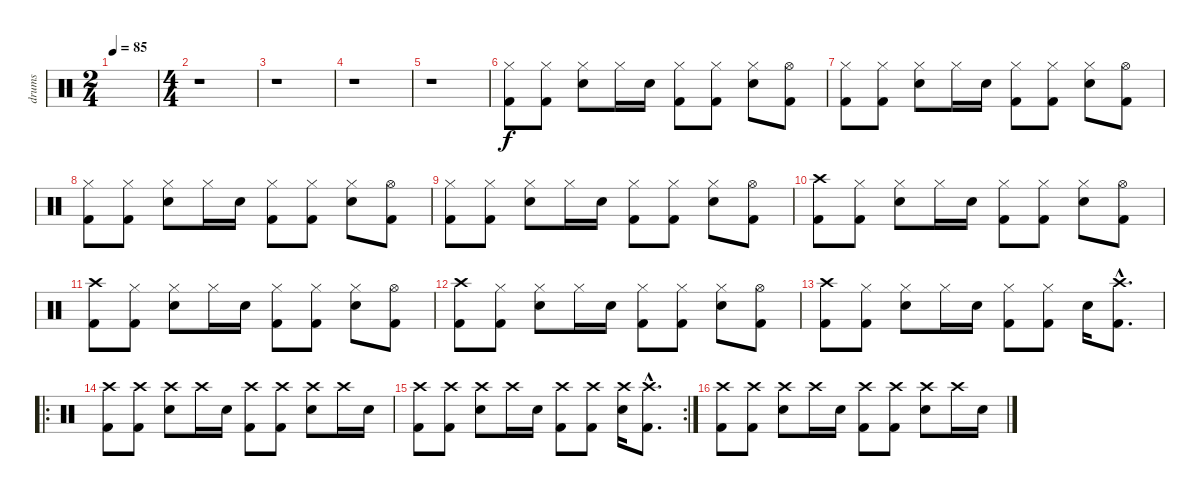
\track ("drums" "drums") {instrument percussion}
\staff {score}
\articulation defaults
\ts (2 4)
\tempo 85
\clef neutral
\ks c
|
\ts (4 4)
r.1 |
r.1 |
r.1 |
r.1 |
("Hi-Hat (closed)" "Kick (hit) 2").8 ("Hi-Hat (closed)" "Kick (hit) 2").8 ("Hi-Hat (closed)" "Snare (hit) 2").8 "Hi-Hat (closed)".16 "Snare (hit) 2".16 ("Hi-Hat (closed)" "Kick (hit) 2").8 ("Hi-Hat (closed)" "Kick (hit) 2").8 ("Hi-Hat (closed)" "Snare (hit) 2").8 ("Hi-Hat (open)" "Kick (hit) 2").8 |
("Hi-Hat (closed)" "Kick (hit) 2").8 ("Hi-Hat (closed)" "Kick (hit) 2").8 ("Hi-Hat (closed)" "Snare (hit) 2").8 "Hi-Hat (closed)".16 "Snare (hit) 2".16 ("Hi-Hat (closed)" "Kick (hit) 2").8 ("Hi-Hat (closed)" "Kick (hit) 2").8 ("Hi-Hat (closed)" "Snare (hit) 2").8 ("Hi-Hat (open)" "Kick (hit) 2").8 |
("Hi-Hat (closed)" "Kick (hit) 2").8 ("Hi-Hat (closed)" "Kick (hit) 2").8 ("Hi-Hat (closed)" "Snare (hit) 2").8 "Hi-Hat (closed)".16 "Snare (hit) 2".16 ("Hi-Hat (closed)" "Kick (hit) 2").8 ("Hi-Hat (closed)" "Kick (hit) 2").8 ("Hi-Hat (closed)" "Snare (hit) 2").8 ("Hi-Hat (open)" "Kick (hit) 2").8 |
("Hi-Hat (closed)" "Kick (hit) 2").8 ("Hi-Hat (closed)" "Kick (hit) 2").8 ("Hi-Hat (closed)" "Snare (hit) 2").8 "Hi-Hat (closed)".16 "Snare (hit) 2".16 ("Hi-Hat (closed)" "Kick (hit) 2").8 ("Hi-Hat (closed)" "Kick (hit) 2").8 ("Hi-Hat (closed)" "Snare (hit) 2").8 ("Hi-Hat (open)" "Kick (hit) 2").8 |
("Crash high (hit)" "Kick (hit) 2").8 ("Hi-Hat (closed)" "Kick (hit) 2").8 ("Hi-Hat (closed)" "Snare (hit) 2").8 "Hi-Hat (closed)".16 "Snare (hit) 2".16 ("Hi-Hat (closed)" "Kick (hit) 2").8 ("Hi-Hat (closed)" "Kick (hit) 2").8 ("Hi-Hat (closed)" "Snare (hit) 2").8 ("Hi-Hat (open)" "Kick (hit) 2").8 |
("Crash high (hit)" "Kick (hit) 2").8 ("Hi-Hat (closed)" "Kick (hit) 2").8 ("Hi-Hat (closed)" "Snare (hit) 2").8 "Hi-Hat (closed)".16 "Snare (hit) 2".16 ("Hi-Hat (closed)" "Kick (hit) 2").8 ("Hi-Hat (closed)" "Kick (hit) 2").8 ("Hi-Hat (closed)" "Snare (hit) 2").8 ("Hi-Hat (open)" "Kick (hit) 2").8 |
("Crash high (hit)" "Kick (hit) 2").8 ("Hi-Hat (closed)" "Kick (hit) 2").8 ("Hi-Hat (closed)" "Snare (hit) 2").8 "Hi-Hat (closed)".16 "Snare (hit) 2".16 ("Hi-Hat (closed)" "Kick (hit) 2").8 ("Hi-Hat (closed)" "Kick (hit) 2").8 ("Hi-Hat (closed)" "Snare (hit) 2").8 ("Hi-Hat (open)" "Kick (hit) 2").8 |
("Crash high (hit)" "Kick (hit) 2").8 ("Hi-Hat (closed)" "Kick (hit) 2").8 ("Hi-Hat (closed)" "Snare (hit) 2").8 "Hi-Hat (closed)".16 "Snare (hit) 2".16 ("Hi-Hat (closed)" "Kick (hit) 2").8 ("Hi-Hat (closed)" "Kick (hit) 2").8 "Snare (hit) 2".16 ("Crash high (hit)"{hac} "Kick (hit) 2"{hac}).8{d} |
\ro
("Crash high (hit)" "Kick (hit) 2").8 ("Crash high (hit)" "Kick (hit) 2").8 ("Crash high (hit)" "Snare (hit) 2").8 "Crash high (hit)".16 "Snare (hit) 2".16 ("Crash high (hit)" "Kick (hit) 2").8 ("Crash high (hit)" "Kick (hit) 2").8 ("Crash high (hit)" "Snare (hit) 2").8 "Crash high (hit)".16 "Snare (hit) 2".16 |
\rc 2
("Crash high (hit)" "Kick (hit) 2").8 ("Crash high (hit)" "Kick (hit) 2").8 ("Crash high (hit)" "Snare (hit) 2").8 "Crash high (hit)".16 "Snare (hit) 2".16 ("Crash high (hit)" "Kick (hit) 2").8 ("Crash high (hit)" "Kick (hit) 2").8 ("Crash high (hit)" "Snare (hit) 2").16 ("Crash high (hit)"{hac} "Kick (hit) 2"{hac}).8{d} |
("Crash high (hit)" "Kick (hit) 2").8 ("Crash high (hit)" "Kick (hit) 2").8 ("Crash high (hit)" "Snare (hit) 2").8 "Crash high (hit)".16 "Snare (hit) 2".16 ("Crash high (hit)" "Kick (hit) 2").8 ("Crash high (hit)" "Kick (hit) 2").8 ("Crash high (hit)" "Snare (hit) 2").8 "Crash high (hit)".16 "Snare (hit) 2".16
